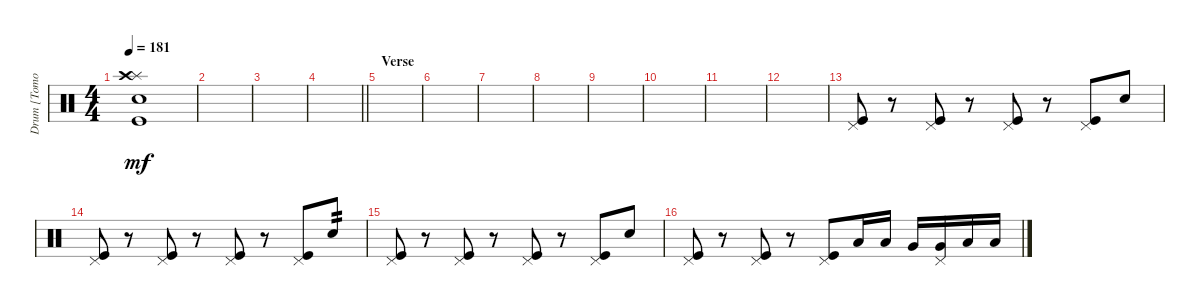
\track ("Drum [Tomoya]" "Drum [Tomo") {instrument percussion}
\staff {score}
\articulation defaults
\ts (4 4)
\tempo 181
\clef neutral
\ks c
("Kick (hit)" "Snare (hit) 2" "Splash (hit)" "Crash high (hit)").1{dy mf} |
|
|
\barLineRight lightlight
|
\section ("" "Verse")
|
|
|
|
|
|
|
|
("Kick (hit)" "Pedal Hi-Hat (hit)").8 r.8 ("Kick (hit)" "Pedal Hi-Hat (hit)").8 r.8 ("Kick (hit)" "Pedal Hi-Hat (hit)").8 r.8 ("Kick (hit)" "Pedal Hi-Hat (hit)").8 "Snare (hit) 2".8 |
("Kick (hit)" "Pedal Hi-Hat (hit)").8 r.8 ("Kick (hit)" "Pedal Hi-Hat (hit)").8 r.8 ("Kick (hit)" "Pedal Hi-Hat (hit)").8 r.8 ("Kick (hit)" "Pedal Hi-Hat (hit)").8 "Snare (hit) 2".8{tp 2} |
("Kick (hit)" "Pedal Hi-Hat (hit)").8 r.8 ("Kick (hit)" "Pedal Hi-Hat (hit)").8 r.8 ("Kick (hit)" "Pedal Hi-Hat (hit)").8 r.8 ("Kick (hit)" "Pedal Hi-Hat (hit)").8 "Snare (hit) 2".8 |
("Kick (hit)" "Pedal Hi-Hat (hit)").8 r.8 ("Kick (hit)" "Pedal Hi-Hat (hit)").8 r.8 ("Kick (hit)" "Pedal Hi-Hat (hit)").8 "Low Tom (hit)".16 "Low Tom (hit)".16 "Very Low Tom (hit)".16 ("Very Low Tom (hit)" "Pedal Hi-Hat (hit)").16 "Low Floor Tom (hit)".16 "Low Floor Tom (hit)".16
